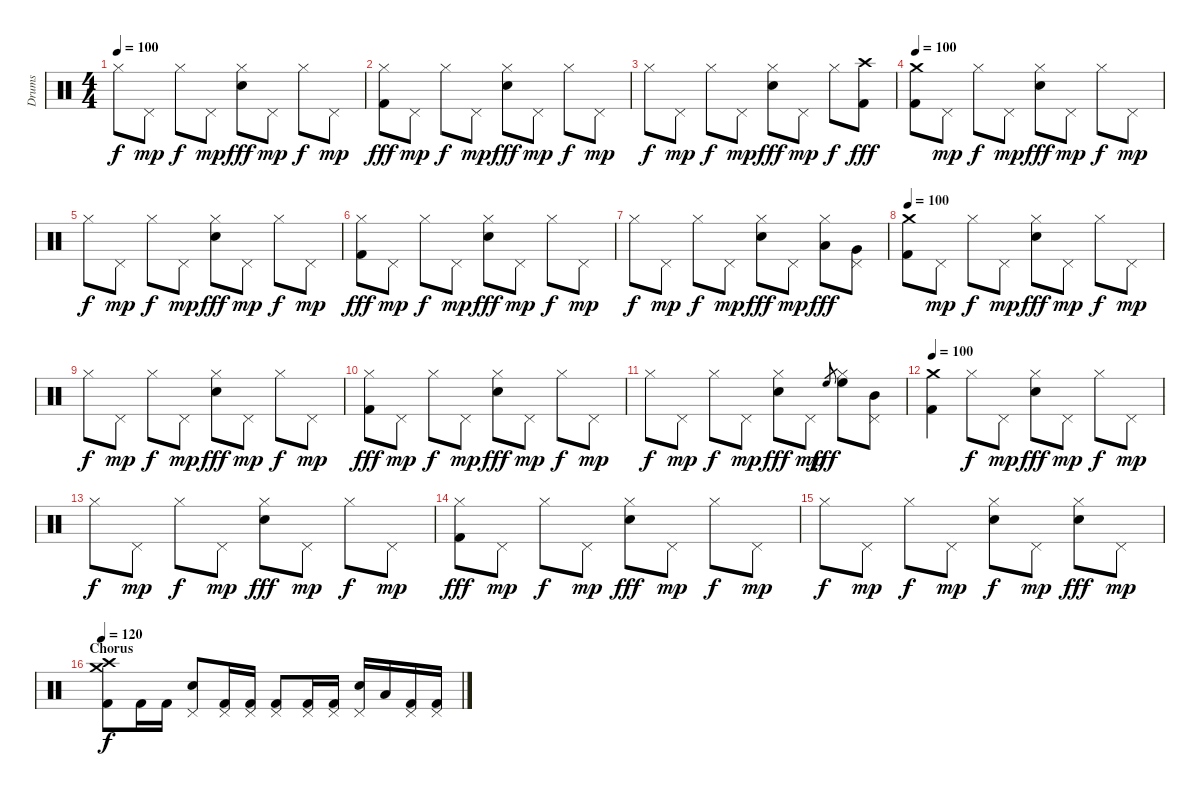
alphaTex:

\track ("Drums" "Drums") {instrument percussion}
\staff {score}
\articulation defaults
\ts (4 4)
\tempo 100
\clef neutral
\ks c "Hi-Hat (closed)".8{dy f} "Pedal Hi-Hat (hit)".8{dy mp} "Hi-Hat (closed)".8{dy f} "Pedal Hi-Hat (hit)".8{dy mp}
("Hi-Hat (closed)" "Electric Snare (hit)").8{dy fff} "Pedal Hi-Hat (hit)".8{dy mp} "Hi-Hat (closed)".8{dy f} "Pedal Hi-Hat (hit)".8{dy mp} |
("Hi-Hat (closed)" "Kick (hit) 2").8{dy fff} "Pedal Hi-Hat (hit)".8{dy mp} "Hi-Hat (closed)".8{dy f} "Pedal Hi-Hat (hit)".8{dy mp} ("Hi-Hat (closed)" "Electric Snare (hit)").8{dy fff} "Pedal Hi-Hat (hit)".8{dy mp} "Hi-Hat (closed)".8{dy f} "Pedal Hi-Hat (hit)".8{dy mp} |
"Hi-Hat (closed)".8{dy f} "Pedal Hi-Hat (hit)".8{dy mp} "Hi-Hat (closed)".8{dy f} "Pedal Hi-Hat (hit)".8{dy mp} ("Hi-Hat (closed)" "Electric Snare (hit)").8{dy fff} "Pedal Hi-Hat (hit)".8{dy mp} "Hi-Hat (closed)".8{dy f} ("Crash high (hit)" "Kick (hit) 2").8{dy fff} |
\tempo 100
("Crash medium (hit)" "Kick (hit) 2").8 "Pedal Hi-Hat (hit)".8{dy mp} "Hi-Hat (closed)".8{dy f} "Pedal Hi-Hat (hit)".8{dy mp} ("Hi-Hat (closed)" "Electric Snare (hit)").8{dy fff} "Pedal Hi-Hat (hit)".8{dy mp} "Hi-Hat (closed)".8{dy f} "Pedal Hi-Hat (hit)".8{dy mp} |
"Hi-Hat (closed)".8{dy f} "Pedal Hi-Hat (hit)".8{dy mp} "Hi-Hat (closed)".8{dy f} "Pedal Hi-Hat (hit)".8{dy mp} ("Hi-Hat (closed)" "Electric Snare (hit)").8{dy fff} "Pedal Hi-Hat (hit)".8{dy mp} "Hi-Hat (closed)".8{dy f} "Pedal Hi-Hat (hit)".8{dy mp} |
("Hi-Hat (closed)" "Kick (hit) 2").8{dy fff} "Pedal Hi-Hat (hit)".8{dy mp} "Hi-Hat (closed)".8{dy f} "Pedal Hi-Hat (hit)".8{dy mp} ("Hi-Hat (closed)" "Electric Snare (hit)").8{dy fff} "Pedal Hi-Hat (hit)".8{dy mp} "Hi-Hat (closed)".8{dy f} "Pedal Hi-Hat (hit)".8{dy mp} |
"Hi-Hat (closed)".8{dy f} "Pedal Hi-Hat (hit)".8{dy mp} "Hi-Hat (closed)".8{dy f} "Pedal Hi-Hat (hit)".8{dy mp} ("Hi-Hat (closed)" "Electric Snare (hit)").8{dy fff} "Pedal Hi-Hat (hit)".8{dy mp} ("Hi-Hat (closed)" "Low Tom (hit)").8{dy fff} ("Pedal Hi-Hat (hit)" "Very Low Tom (hit)").8 |
\tempo 100
("Crash medium (hit)" "Kick (hit) 2").8 "Pedal Hi-Hat (hit)".8{dy mp} "Hi-Hat (closed)".8{dy f} "Pedal Hi-Hat (hit)".8{dy mp} ("Hi-Hat (closed)" "Electric Snare (hit)").8{dy fff} "Pedal Hi-Hat (hit)".8{dy mp} "Hi-Hat (closed)".8{dy f} "Pedal Hi-Hat (hit)".8{dy mp} |
"Hi-Hat (closed)".8{dy f} "Pedal Hi-Hat (hit)".8{dy mp} "Hi-Hat (closed)".8{dy f} "Pedal Hi-Hat (hit)".8{dy mp} ("Hi-Hat (closed)" "Electric Snare (hit)").8{dy fff} "Pedal Hi-Hat (hit)".8{dy mp} "Hi-Hat (closed)".8{dy f} "Pedal Hi-Hat (hit)".8{dy mp} |
("Hi-Hat (closed)" "Kick (hit) 2").8{dy fff} "Pedal Hi-Hat (hit)".8{dy mp} "Hi-Hat (closed)".8{dy f} "Pedal Hi-Hat (hit)".8{dy mp} ("Hi-Hat (closed)" "Electric Snare (hit)").8{dy fff} "Pedal Hi-Hat (hit)".8{dy mp} "Hi-Hat (closed)".8{dy f} "Pedal Hi-Hat (hit)".8{dy mp} |
"Hi-Hat (closed)".8{dy f} "Pedal Hi-Hat (hit)".8{dy mp} "Hi-Hat (closed)".8{dy f} "Pedal Hi-Hat (hit)".8{dy mp} ("Hi-Hat (closed)" "Electric Snare (hit)").8{dy fff} "Pedal Hi-Hat (hit)".8{dy mp} "High Floor Tom (hit)".8{gr dy fff} ("Hi-Hat (closed)" "High Floor Tom (hit)").8 ("Pedal Hi-Hat (hit)" "Mid Tom (hit)").8 |
\tempo 100
("Crash medium (hit)" "Kick (hit) 2").4 "Hi-Hat (closed)".8{dy f} "Pedal Hi-Hat (hit)".8{dy mp} ("Hi-Hat (closed)" "Electric Snare (hit)").8{dy fff} "Pedal Hi-Hat (hit)".8{dy mp} "Hi-Hat (closed)".8{dy f} "Pedal Hi-Hat (hit)".8{dy mp} |
"Hi-Hat (closed)".8{dy f} "Pedal Hi-Hat (hit)".8{dy mp} "Hi-Hat (closed)".8{dy f} "Pedal Hi-Hat (hit)".8{dy mp} ("Hi-Hat (closed)" "Electric Snare (hit)").8{dy fff} "Pedal Hi-Hat (hit)".8{dy mp} "Hi-Hat (closed)".8{dy f} "Pedal Hi-Hat (hit)".8{dy mp} |
("Hi-Hat (closed)" "Kick (hit) 2").8{dy fff} "Pedal Hi-Hat (hit)".8{dy mp} "Hi-Hat (closed)".8{dy f} "Pedal Hi-Hat (hit)".8{dy mp} ("Hi-Hat (closed)" "Electric Snare (hit)").8{dy fff} "Pedal Hi-Hat (hit)".8{dy mp} "Hi-Hat (closed)".8{dy f} "Pedal Hi-Hat (hit)".8{dy mp} |
"Hi-Hat (closed)".8{dy f} "Pedal Hi-Hat (hit)".8{dy mp} "Hi-Hat (closed)".8{dy f} "Pedal Hi-Hat (hit)".8{dy mp} ("Hi-Hat (closed)" "Electric Snare (hit)").8{dy f} "Pedal Hi-Hat (hit)".8{dy mp} ("Hi-Hat (closed)" "Electric Snare (hit)").8{dy fff} "Pedal Hi-Hat (hit)".8{dy mp} |
\section ("" "Chorus")
\tempo 120
("Crash medium (hit)" "Crash high (hit)" "Kick (hit) 2").8{dy f} "Kick (hit) 2".16 "Kick (hit) 2".16 ("Pedal Hi-Hat (hit)" "Electric Snare (hit)").8 ("Pedal Hi-Hat (hit)" "Kick (hit) 2").16 ("Pedal Hi-Hat (hit)" "Kick (hit) 2").16 ("Pedal Hi-Hat (hit)" "Kick (hit) 2").8 ("Pedal Hi-Hat (hit)" "Kick (hit) 2").16 ("Pedal Hi-Hat (hit)" "Kick (hit) 2").16 ("Pedal Hi-Hat (hit)" "Electric Snare (hit)").16 "Low Tom (hit)".16 ("Pedal Hi-Hat (hit)" "Kick (hit) 2").16 ("Pedal Hi-Hat (hit)" "Kick (hit) 2").16
